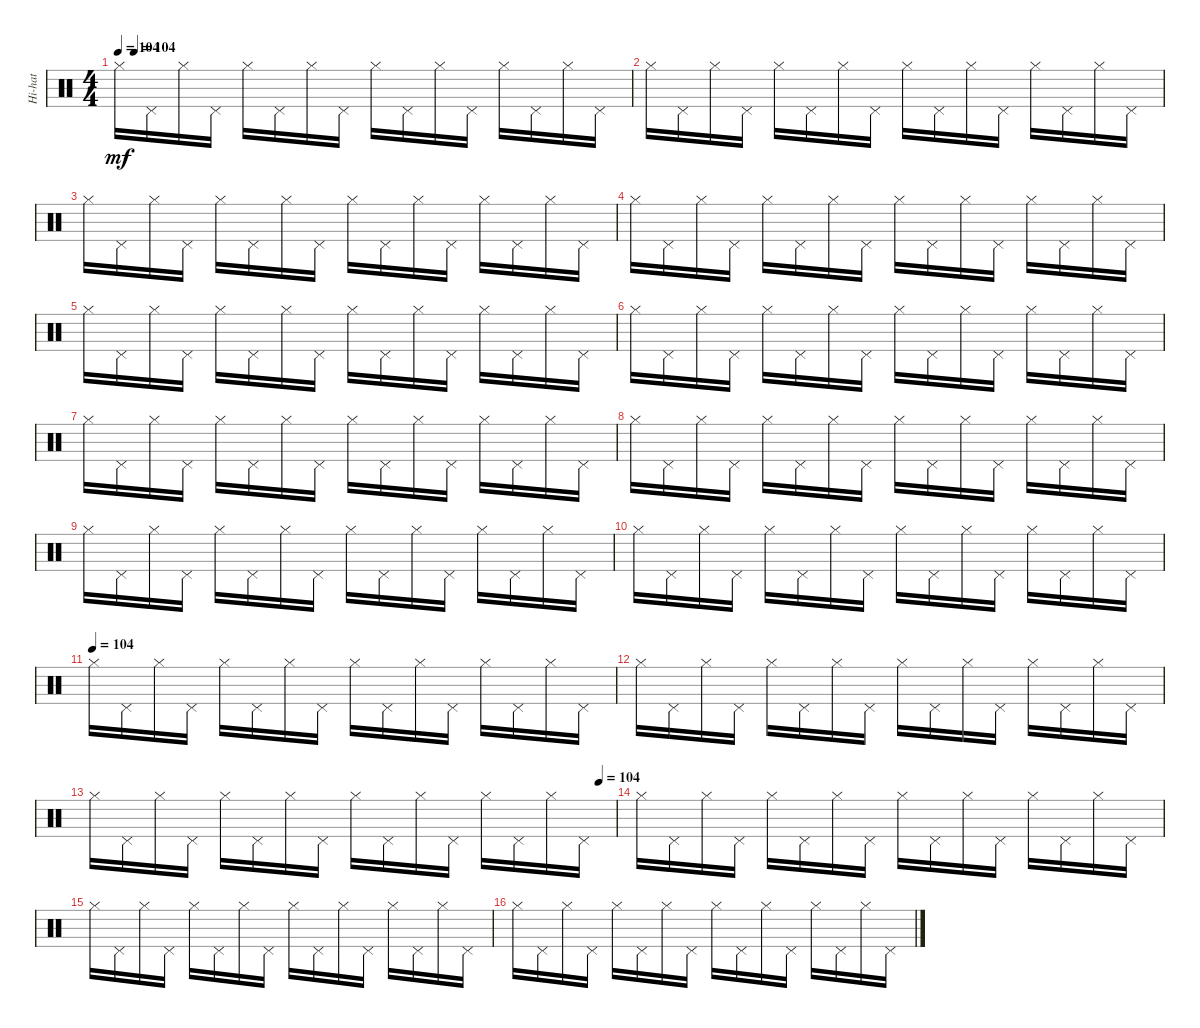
\track ("Hi-hat" "Hi-hat") {instrument percussion}
\staff {score}
\articulation defaults
\ts (4 4)
\tempo 104
\tempo (104 0.03125)
\clef neutral
\ks c "Hi-Hat (closed)".16{dy mf} "Pedal Hi-Hat (hit)".16 "Hi-Hat (closed)".16 "Pedal Hi-Hat (hit)".16 "Hi-Hat (closed)".16 "Pedal Hi-Hat (hit)".16 "Hi-Hat (closed)".16 "Pedal Hi-Hat (hit)".16 "Hi-Hat (closed)".16 "Pedal Hi-Hat (hit)".16 "Hi-Hat (closed)".16 "Pedal Hi-Hat (hit)".16 "Hi-Hat (closed)".16 "Pedal Hi-Hat (hit)".16 "Hi-Hat (closed)".16 "Pedal Hi-Hat (hit)".16
|
"Hi-Hat (closed)".16 "Pedal Hi-Hat (hit)".16 "Hi-Hat (closed)".16 "Pedal Hi-Hat (hit)".16 "Hi-Hat (closed)".16 "Pedal Hi-Hat (hit)".16 "Hi-Hat (closed)".16 "Pedal Hi-Hat (hit)".16 "Hi-Hat (closed)".16 "Pedal Hi-Hat (hit)".16 "Hi-Hat (closed)".16 "Pedal Hi-Hat (hit)".16 "Hi-Hat (closed)".16 "Pedal Hi-Hat (hit)".16 "Hi-Hat (closed)".16 "Pedal Hi-Hat (hit)".16 |
"Hi-Hat (closed)".16 "Pedal Hi-Hat (hit)".16 "Hi-Hat (closed)".16 "Pedal Hi-Hat (hit)".16 "Hi-Hat (closed)".16 "Pedal Hi-Hat (hit)".16 "Hi-Hat (closed)".16 "Pedal Hi-Hat (hit)".16 "Hi-Hat (closed)".16 "Pedal Hi-Hat (hit)".16 "Hi-Hat (closed)".16 "Pedal Hi-Hat (hit)".16 "Hi-Hat (closed)".16 "Pedal Hi-Hat (hit)".16 "Hi-Hat (closed)".16 "Pedal Hi-Hat (hit)".16 |
"Hi-Hat (closed)".16 "Pedal Hi-Hat (hit)".16 "Hi-Hat (closed)".16 "Pedal Hi-Hat (hit)".16 "Hi-Hat (closed)".16 "Pedal Hi-Hat (hit)".16 "Hi-Hat (closed)".16 "Pedal Hi-Hat (hit)".16 "Hi-Hat (closed)".16 "Pedal Hi-Hat (hit)".16 "Hi-Hat (closed)".16 "Pedal Hi-Hat (hit)".16 "Hi-Hat (closed)".16 "Pedal Hi-Hat (hit)".16 "Hi-Hat (closed)".16 "Pedal Hi-Hat (hit)".16 |
"Hi-Hat (closed)".16 "Pedal Hi-Hat (hit)".16 "Hi-Hat (closed)".16 "Pedal Hi-Hat (hit)".16 "Hi-Hat (closed)".16 "Pedal Hi-Hat (hit)".16 "Hi-Hat (closed)".16 "Pedal Hi-Hat (hit)".16 "Hi-Hat (closed)".16 "Pedal Hi-Hat (hit)".16 "Hi-Hat (closed)".16 "Pedal Hi-Hat (hit)".16 "Hi-Hat (closed)".16 "Pedal Hi-Hat (hit)".16 "Hi-Hat (closed)".16 "Pedal Hi-Hat (hit)".16 |
"Hi-Hat (closed)".16 "Pedal Hi-Hat (hit)".16 "Hi-Hat (closed)".16 "Pedal Hi-Hat (hit)".16 "Hi-Hat (closed)".16 "Pedal Hi-Hat (hit)".16 "Hi-Hat (closed)".16 "Pedal Hi-Hat (hit)".16 "Hi-Hat (closed)".16 "Pedal Hi-Hat (hit)".16 "Hi-Hat (closed)".16 "Pedal Hi-Hat (hit)".16 "Hi-Hat (closed)".16 "Pedal Hi-Hat (hit)".16 "Hi-Hat (closed)".16 "Pedal Hi-Hat (hit)".16 |
"Hi-Hat (closed)".16 "Pedal Hi-Hat (hit)".16 "Hi-Hat (closed)".16 "Pedal Hi-Hat (hit)".16 "Hi-Hat (closed)".16 "Pedal Hi-Hat (hit)".16 "Hi-Hat (closed)".16 "Pedal Hi-Hat (hit)".16 "Hi-Hat (closed)".16 "Pedal Hi-Hat (hit)".16 "Hi-Hat (closed)".16 "Pedal Hi-Hat (hit)".16 "Hi-Hat (closed)".16 "Pedal Hi-Hat (hit)".16 "Hi-Hat (closed)".16 "Pedal Hi-Hat (hit)".16 |
"Hi-Hat (closed)".16 "Pedal Hi-Hat (hit)".16 "Hi-Hat (closed)".16 "Pedal Hi-Hat (hit)".16 "Hi-Hat (closed)".16 "Pedal Hi-Hat (hit)".16 "Hi-Hat (closed)".16 "Pedal Hi-Hat (hit)".16 "Hi-Hat (closed)".16 "Pedal Hi-Hat (hit)".16 "Hi-Hat (closed)".16 "Pedal Hi-Hat (hit)".16 "Hi-Hat (closed)".16 "Pedal Hi-Hat (hit)".16 "Hi-Hat (closed)".16 "Pedal Hi-Hat (hit)".16 |
"Hi-Hat (closed)".16 "Pedal Hi-Hat (hit)".16 "Hi-Hat (closed)".16 "Pedal Hi-Hat (hit)".16 "Hi-Hat (closed)".16 "Pedal Hi-Hat (hit)".16 "Hi-Hat (closed)".16 "Pedal Hi-Hat (hit)".16 "Hi-Hat (closed)".16 "Pedal Hi-Hat (hit)".16 "Hi-Hat (closed)".16 "Pedal Hi-Hat (hit)".16 "Hi-Hat (closed)".16 "Pedal Hi-Hat (hit)".16 "Hi-Hat (closed)".16 "Pedal Hi-Hat (hit)".16 |
"Hi-Hat (closed)".16 "Pedal Hi-Hat (hit)".16 "Hi-Hat (closed)".16 "Pedal Hi-Hat (hit)".16 "Hi-Hat (closed)".16 "Pedal Hi-Hat (hit)".16 "Hi-Hat (closed)".16 "Pedal Hi-Hat (hit)".16 "Hi-Hat (closed)".16 "Pedal Hi-Hat (hit)".16 "Hi-Hat (closed)".16 "Pedal Hi-Hat (hit)".16 "Hi-Hat (closed)".16 "Pedal Hi-Hat (hit)".16 "Hi-Hat (closed)".16 "Pedal Hi-Hat (hit)".16 |
\tempo (104)
"Hi-Hat (closed)".16 "Pedal Hi-Hat (hit)".16 "Hi-Hat (closed)".16 "Pedal Hi-Hat (hit)".16 "Hi-Hat (closed)".16 "Pedal Hi-Hat (hit)".16 "Hi-Hat (closed)".16 "Pedal Hi-Hat (hit)".16 "Hi-Hat (closed)".16 "Pedal Hi-Hat (hit)".16 "Hi-Hat (closed)".16 "Pedal Hi-Hat (hit)".16 "Hi-Hat (closed)".16 "Pedal Hi-Hat (hit)".16 "Hi-Hat (closed)".16 "Pedal Hi-Hat (hit)".16 |
"Hi-Hat (closed)".16 "Pedal Hi-Hat (hit)".16 "Hi-Hat (closed)".16 "Pedal Hi-Hat (hit)".16 "Hi-Hat (closed)".16 "Pedal Hi-Hat (hit)".16 "Hi-Hat (closed)".16 "Pedal Hi-Hat (hit)".16 "Hi-Hat (closed)".16 "Pedal Hi-Hat (hit)".16 "Hi-Hat (closed)".16 "Pedal Hi-Hat (hit)".16 "Hi-Hat (closed)".16 "Pedal Hi-Hat (hit)".16 "Hi-Hat (closed)".16 "Pedal Hi-Hat (hit)".16 |
\tempo (104 0.96875)
"Hi-Hat (closed)".16 "Pedal Hi-Hat (hit)".16 "Hi-Hat (closed)".16 "Pedal Hi-Hat (hit)".16 "Hi-Hat (closed)".16 "Pedal Hi-Hat (hit)".16 "Hi-Hat (closed)".16 "Pedal Hi-Hat (hit)".16 "Hi-Hat (closed)".16 "Pedal Hi-Hat (hit)".16 "Hi-Hat (closed)".16 "Pedal Hi-Hat (hit)".16 "Hi-Hat (closed)".16 "Pedal Hi-Hat (hit)".16 "Hi-Hat (closed)".16 "Pedal Hi-Hat (hit)".16 |
"Hi-Hat (closed)".16 "Pedal Hi-Hat (hit)".16 "Hi-Hat (closed)".16 "Pedal Hi-Hat (hit)".16 "Hi-Hat (closed)".16 "Pedal Hi-Hat (hit)".16 "Hi-Hat (closed)".16 "Pedal Hi-Hat (hit)".16 "Hi-Hat (closed)".16 "Pedal Hi-Hat (hit)".16 "Hi-Hat (closed)".16 "Pedal Hi-Hat (hit)".16 "Hi-Hat (closed)".16 "Pedal Hi-Hat (hit)".16 "Hi-Hat (closed)".16 "Pedal Hi-Hat (hit)".16 |
"Hi-Hat (closed)".16 "Pedal Hi-Hat (hit)".16 "Hi-Hat (closed)".16 "Pedal Hi-Hat (hit)".16 "Hi-Hat (closed)".16 "Pedal Hi-Hat (hit)".16 "Hi-Hat (closed)".16 "Pedal Hi-Hat (hit)".16 "Hi-Hat (closed)".16 "Pedal Hi-Hat (hit)".16 "Hi-Hat (closed)".16 "Pedal Hi-Hat (hit)".16 "Hi-Hat (closed)".16 "Pedal Hi-Hat (hit)".16 "Hi-Hat (closed)".16 "Pedal Hi-Hat (hit)".16 |
"Hi-Hat (closed)".16 "Pedal Hi-Hat (hit)".16 "Hi-Hat (closed)".16 "Pedal Hi-Hat (hit)".16 "Hi-Hat (closed)".16 "Pedal Hi-Hat (hit)".16 "Hi-Hat (closed)".16 "Pedal Hi-Hat (hit)".16 "Hi-Hat (closed)".16 "Pedal Hi-Hat (hit)".16 "Hi-Hat (closed)".16 "Pedal Hi-Hat (hit)".16 "Hi-Hat (closed)".16 "Pedal Hi-Hat (hit)".16 "Hi-Hat (closed)".16 "Pedal Hi-Hat (hit)".16
